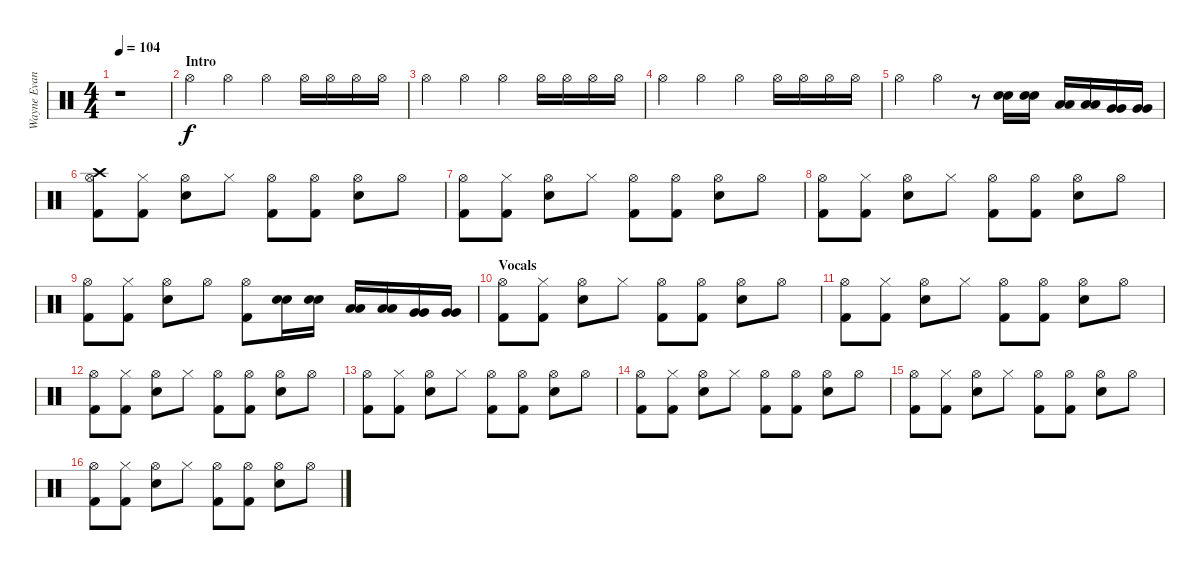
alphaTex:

\track ("Wayne Evans " "Wayne Evan") {instrument percussion}
\staff {score}
\articulation defaults
\ts (4 4)
\tempo 104
\clef neutral
\ks c
r.1{dy f} |
\section ("" "Intro")
"Hi-Hat (open)".4 "Hi-Hat (open)".4 "Hi-Hat (open)".4 "Hi-Hat (open)".16 "Hi-Hat (open)".16 "Hi-Hat (open)".16 "Hi-Hat (open)".16 |
"Hi-Hat (open)".4 "Hi-Hat (open)".4 "Hi-Hat (open)".4 "Hi-Hat (open)".16 "Hi-Hat (open)".16 "Hi-Hat (open)".16 "Hi-Hat (open)".16 |
"Hi-Hat (open)".4 "Hi-Hat (open)".4 "Hi-Hat (open)".4 "Hi-Hat (open)".16 "Hi-Hat (open)".16 "Hi-Hat (open)".16 "Hi-Hat (open)".16 |
"Hi-Hat (open)".4 "Hi-Hat (open)".4 r.8 ("Electric Snare (hit)" "Electric Snare (hit)").16 ("Electric Snare (hit)" "Electric Snare (hit)").16 ("Low Tom (hit)" "Low Tom (hit)").16 ("Low Tom (hit)" "Low Tom (hit)").16 ("Very Low Tom (hit)" "Very Low Tom (hit)").16 ("Very Low Tom (hit)" "Very Low Tom (hit)").16 |
("Crash high (hit)" "Hi-Hat (open)" "Kick (hit) 2").8 ("Hi-Hat (closed)" "Kick (hit) 2").8 ("Hi-Hat (open)" "Electric Snare (hit)").8 "Hi-Hat (closed)".8 ("Hi-Hat (open)" "Kick (hit) 2").8 ("Hi-Hat (open)" "Kick (hit) 2").8 ("Hi-Hat (open)" "Electric Snare (hit)").8 "Hi-Hat (open)".8 |
("Hi-Hat (open)" "Kick (hit) 2").8 ("Hi-Hat (closed)" "Kick (hit) 2").8 ("Hi-Hat (open)" "Electric Snare (hit)").8 "Hi-Hat (closed)".8 ("Hi-Hat (open)" "Kick (hit) 2").8 ("Hi-Hat (open)" "Kick (hit) 2").8 ("Hi-Hat (open)" "Electric Snare (hit)").8 "Hi-Hat (open)".8 |
("Hi-Hat (open)" "Kick (hit) 2").8 ("Hi-Hat (closed)" "Kick (hit) 2").8 ("Hi-Hat (open)" "Electric Snare (hit)").8 "Hi-Hat (closed)".8 ("Hi-Hat (open)" "Kick (hit) 2").8 ("Hi-Hat (open)" "Kick (hit) 2").8 ("Hi-Hat (open)" "Electric Snare (hit)").8 "Hi-Hat (open)".8 |
("Hi-Hat (open)" "Kick (hit) 2").8 ("Hi-Hat (closed)" "Kick (hit) 2").8 ("Hi-Hat (open)" "Electric Snare (hit)").8 "Hi-Hat (open)".8 ("Hi-Hat (open)" "Kick (hit) 2").8 ("Electric Snare (hit)" "Electric Snare (hit)").16 ("Electric Snare (hit)" "Electric Snare (hit)").16 ("Low Tom (hit)" "Low Tom (hit)").16 ("Low Tom (hit)" "Low Tom (hit)").16 ("Very Low Tom (hit)" "Very Low Tom (hit)").16 ("Very Low Tom (hit)" "Very Low Tom (hit)").16 |
\section ("" "Vocals")
("Hi-Hat (open)" "Kick (hit) 2").8 ("Hi-Hat (closed)" "Kick (hit) 2").8 ("Hi-Hat (open)" "Electric Snare (hit)").8 "Hi-Hat (closed)".8 ("Hi-Hat (open)" "Kick (hit) 2").8 ("Hi-Hat (open)" "Kick (hit) 2").8 ("Hi-Hat (open)" "Electric Snare (hit)").8 "Hi-Hat (open)".8 |
("Hi-Hat (open)" "Kick (hit) 2").8 ("Hi-Hat (closed)" "Kick (hit) 2").8 ("Hi-Hat (open)" "Electric Snare (hit)").8 "Hi-Hat (closed)".8 ("Hi-Hat (open)" "Kick (hit) 2").8 ("Hi-Hat (open)" "Kick (hit) 2").8 ("Hi-Hat (open)" "Electric Snare (hit)").8 "Hi-Hat (open)".8 |
("Hi-Hat (open)" "Kick (hit) 2").8 ("Hi-Hat (closed)" "Kick (hit) 2").8 ("Hi-Hat (open)" "Electric Snare (hit)").8 "Hi-Hat (closed)".8 ("Hi-Hat (open)" "Kick (hit) 2").8 ("Hi-Hat (open)" "Kick (hit) 2").8 ("Hi-Hat (open)" "Electric Snare (hit)").8 "Hi-Hat (open)".8 |
("Hi-Hat (open)" "Kick (hit) 2").8 ("Hi-Hat (closed)" "Kick (hit) 2").8 ("Hi-Hat (open)" "Electric Snare (hit)").8 "Hi-Hat (closed)".8 ("Hi-Hat (open)" "Kick (hit) 2").8 ("Hi-Hat (open)" "Kick (hit) 2").8 ("Hi-Hat (open)" "Electric Snare (hit)").8 "Hi-Hat (open)".8 |
("Hi-Hat (open)" "Kick (hit) 2").8 ("Hi-Hat (closed)" "Kick (hit) 2").8 ("Hi-Hat (open)" "Electric Snare (hit)").8 "Hi-Hat (closed)".8 ("Hi-Hat (open)" "Kick (hit) 2").8 ("Hi-Hat (open)" "Kick (hit) 2").8 ("Hi-Hat (open)" "Electric Snare (hit)").8 "Hi-Hat (open)".8 |
("Hi-Hat (open)" "Kick (hit) 2").8 ("Hi-Hat (closed)" "Kick (hit) 2").8 ("Hi-Hat (open)" "Electric Snare (hit)").8 "Hi-Hat (closed)".8 ("Hi-Hat (open)" "Kick (hit) 2").8 ("Hi-Hat (open)" "Kick (hit) 2").8 ("Hi-Hat (open)" "Electric Snare (hit)").8 "Hi-Hat (open)".8 |
("Hi-Hat (open)" "Kick (hit) 2").8 ("Hi-Hat (closed)" "Kick (hit) 2").8 ("Hi-Hat (open)" "Electric Snare (hit)").8 "Hi-Hat (closed)".8 ("Hi-Hat (open)" "Kick (hit) 2").8 ("Hi-Hat (open)" "Kick (hit) 2").8 ("Hi-Hat (open)" "Electric Snare (hit)").8 "Hi-Hat (open)".8
